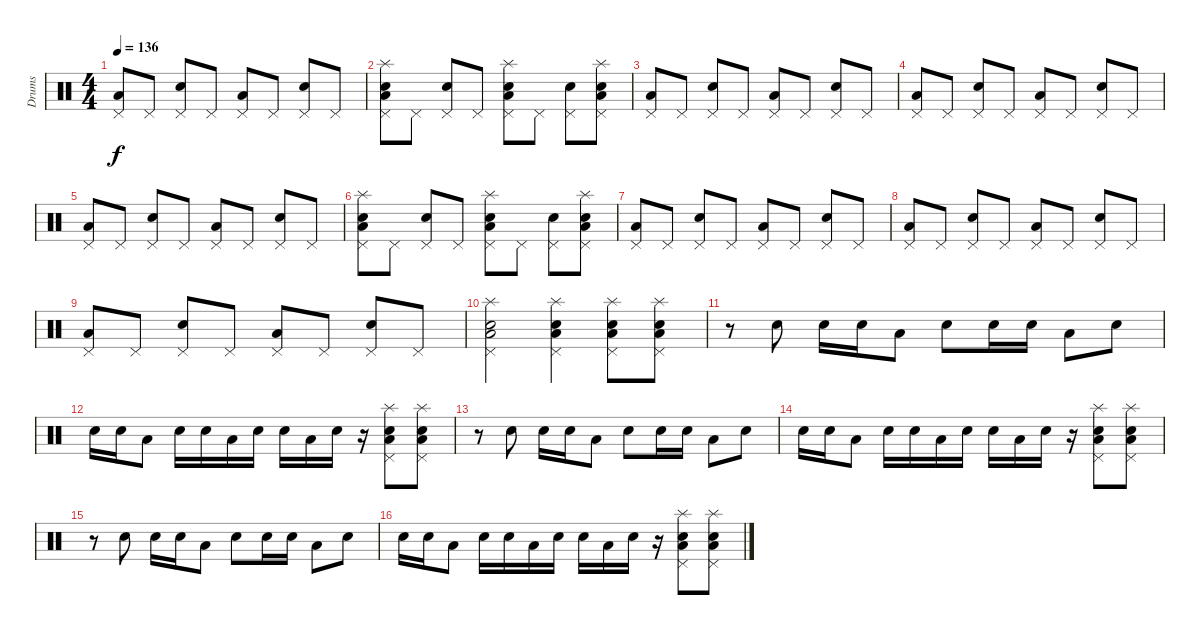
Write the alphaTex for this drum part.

\track ("Drums" "Drums") {instrument percussion}
\staff {score}
\articulation defaults
\ts (4 4)
\tempo 136
\clef neutral
\ks c
("Low Floor Tom (hit)" "Pedal Hi-Hat (hit)").8{dy f} "Pedal Hi-Hat (hit)".8 ("Electric Snare (hit)" "Pedal Hi-Hat (hit)").8 "Pedal Hi-Hat (hit)".8 ("Low Floor Tom (hit)" "Pedal Hi-Hat (hit)").8 "Pedal Hi-Hat (hit)".8 ("Electric Snare (hit)" "Pedal Hi-Hat (hit)").8 "Pedal Hi-Hat (hit)".8 |
("Electric Snare (hit)" "Low Floor Tom (hit)" "Pedal Hi-Hat (hit)" "Splash (hit)").8 "Pedal Hi-Hat (hit)".8 ("Electric Snare (hit)" "Pedal Hi-Hat (hit)").8 "Pedal Hi-Hat (hit)".8 ("Electric Snare (hit)" "Low Floor Tom (hit)" "Pedal Hi-Hat (hit)" "Splash (hit)").8 "Pedal Hi-Hat (hit)".8 ("Electric Snare (hit)" "Pedal Hi-Hat (hit)").8 ("Electric Snare (hit)" "Low Floor Tom (hit)" "Pedal Hi-Hat (hit)" "Splash (hit)").8 |
("Low Floor Tom (hit)" "Pedal Hi-Hat (hit)").8 "Pedal Hi-Hat (hit)".8 ("Electric Snare (hit)" "Pedal Hi-Hat (hit)").8 "Pedal Hi-Hat (hit)".8 ("Low Floor Tom (hit)" "Pedal Hi-Hat (hit)").8 "Pedal Hi-Hat (hit)".8 ("Electric Snare (hit)" "Pedal Hi-Hat (hit)").8 "Pedal Hi-Hat (hit)".8 |
("Low Floor Tom (hit)" "Pedal Hi-Hat (hit)").8 "Pedal Hi-Hat (hit)".8 ("Electric Snare (hit)" "Pedal Hi-Hat (hit)").8 "Pedal Hi-Hat (hit)".8 ("Low Floor Tom (hit)" "Pedal Hi-Hat (hit)").8 "Pedal Hi-Hat (hit)".8 ("Electric Snare (hit)" "Pedal Hi-Hat (hit)").8 "Pedal Hi-Hat (hit)".8 |
("Low Floor Tom (hit)" "Pedal Hi-Hat (hit)").8 "Pedal Hi-Hat (hit)".8 ("Electric Snare (hit)" "Pedal Hi-Hat (hit)").8 "Pedal Hi-Hat (hit)".8 ("Low Floor Tom (hit)" "Pedal Hi-Hat (hit)").8 "Pedal Hi-Hat (hit)".8 ("Electric Snare (hit)" "Pedal Hi-Hat (hit)").8 "Pedal Hi-Hat (hit)".8 |
("Electric Snare (hit)" "Low Floor Tom (hit)" "Pedal Hi-Hat (hit)" "Splash (hit)").8 "Pedal Hi-Hat (hit)".8 ("Electric Snare (hit)" "Pedal Hi-Hat (hit)").8 "Pedal Hi-Hat (hit)".8 ("Electric Snare (hit)" "Low Floor Tom (hit)" "Pedal Hi-Hat (hit)" "Splash (hit)").8 "Pedal Hi-Hat (hit)".8 ("Electric Snare (hit)" "Pedal Hi-Hat (hit)").8 ("Electric Snare (hit)" "Low Floor Tom (hit)" "Pedal Hi-Hat (hit)" "Splash (hit)").8 |
("Low Floor Tom (hit)" "Pedal Hi-Hat (hit)").8 "Pedal Hi-Hat (hit)".8 ("Electric Snare (hit)" "Pedal Hi-Hat (hit)").8 "Pedal Hi-Hat (hit)".8 ("Low Floor Tom (hit)" "Pedal Hi-Hat (hit)").8 "Pedal Hi-Hat (hit)".8 ("Electric Snare (hit)" "Pedal Hi-Hat (hit)").8 "Pedal Hi-Hat (hit)".8 |
("Low Floor Tom (hit)" "Pedal Hi-Hat (hit)").8 "Pedal Hi-Hat (hit)".8 ("Electric Snare (hit)" "Pedal Hi-Hat (hit)").8 "Pedal Hi-Hat (hit)".8 ("Low Floor Tom (hit)" "Pedal Hi-Hat (hit)").8 "Pedal Hi-Hat (hit)".8 ("Electric Snare (hit)" "Pedal Hi-Hat (hit)").8 "Pedal Hi-Hat (hit)".8 |
("Low Floor Tom (hit)" "Pedal Hi-Hat (hit)").8 "Pedal Hi-Hat (hit)".8 ("Electric Snare (hit)" "Pedal Hi-Hat (hit)").8 "Pedal Hi-Hat (hit)".8 ("Low Floor Tom (hit)" "Pedal Hi-Hat (hit)").8 "Pedal Hi-Hat (hit)".8 ("Electric Snare (hit)" "Pedal Hi-Hat (hit)").8 "Pedal Hi-Hat (hit)".8 |
("Electric Snare (hit)" "Low Floor Tom (hit)" "Pedal Hi-Hat (hit)" "Splash (hit)").2 ("Electric Snare (hit)" "Low Floor Tom (hit)" "Pedal Hi-Hat (hit)" "Splash (hit)").4 ("Electric Snare (hit)" "Low Floor Tom (hit)" "Pedal Hi-Hat (hit)" "Splash (hit)").8 ("Electric Snare (hit)" "Low Floor Tom (hit)" "Pedal Hi-Hat (hit)" "Splash (hit)").8 |
r.8 "Electric Snare (hit)".8 "Electric Snare (hit)".16 "Electric Snare (hit)".16 "Low Floor Tom (hit)".8 "Electric Snare (hit)".8 "Electric Snare (hit)".16 "Electric Snare (hit)".16 "Low Floor Tom (hit)".8 "Electric Snare (hit)".8 |
"Electric Snare (hit)".16 "Electric Snare (hit)".16 "Low Floor Tom (hit)".8 "Electric Snare (hit)".16 "Electric Snare (hit)".16 "Low Floor Tom (hit)".16 "Electric Snare (hit)".16 "Electric Snare (hit)".16 "Low Floor Tom (hit)".16 "Electric Snare (hit)".16 r.16 ("Electric Snare (hit)" "Low Floor Tom (hit)" "Pedal Hi-Hat (hit)" "Splash (hit)").8 ("Electric Snare (hit)" "Low Floor Tom (hit)" "Pedal Hi-Hat (hit)" "Splash (hit)").8 |
r.8 "Electric Snare (hit)".8 "Electric Snare (hit)".16 "Electric Snare (hit)".16 "Low Floor Tom (hit)".8 "Electric Snare (hit)".8 "Electric Snare (hit)".16 "Electric Snare (hit)".16 "Low Floor Tom (hit)".8 "Electric Snare (hit)".8 |
"Electric Snare (hit)".16 "Electric Snare (hit)".16 "Low Floor Tom (hit)".8 "Electric Snare (hit)".16 "Electric Snare (hit)".16 "Low Floor Tom (hit)".16 "Electric Snare (hit)".16 "Electric Snare (hit)".16 "Low Floor Tom (hit)".16 "Electric Snare (hit)".16 r.16 ("Electric Snare (hit)" "Low Floor Tom (hit)" "Pedal Hi-Hat (hit)" "Splash (hit)").8 ("Electric Snare (hit)" "Low Floor Tom (hit)" "Pedal Hi-Hat (hit)" "Splash (hit)").8 |
r.8 "Electric Snare (hit)".8 "Electric Snare (hit)".16 "Electric Snare (hit)".16 "Low Floor Tom (hit)".8 "Electric Snare (hit)".8 "Electric Snare (hit)".16 "Electric Snare (hit)".16 "Low Floor Tom (hit)".8 "Electric Snare (hit)".8 |
"Electric Snare (hit)".16 "Electric Snare (hit)".16 "Low Floor Tom (hit)".8 "Electric Snare (hit)".16 "Electric Snare (hit)".16 "Low Floor Tom (hit)".16 "Electric Snare (hit)".16 "Electric Snare (hit)".16 "Low Floor Tom (hit)".16 "Electric Snare (hit)".16 r.16 ("Electric Snare (hit)" "Low Floor Tom (hit)" "Pedal Hi-Hat (hit)" "Splash (hit)").8 ("Electric Snare (hit)" "Low Floor Tom (hit)" "Pedal Hi-Hat (hit)" "Splash (hit)").8
